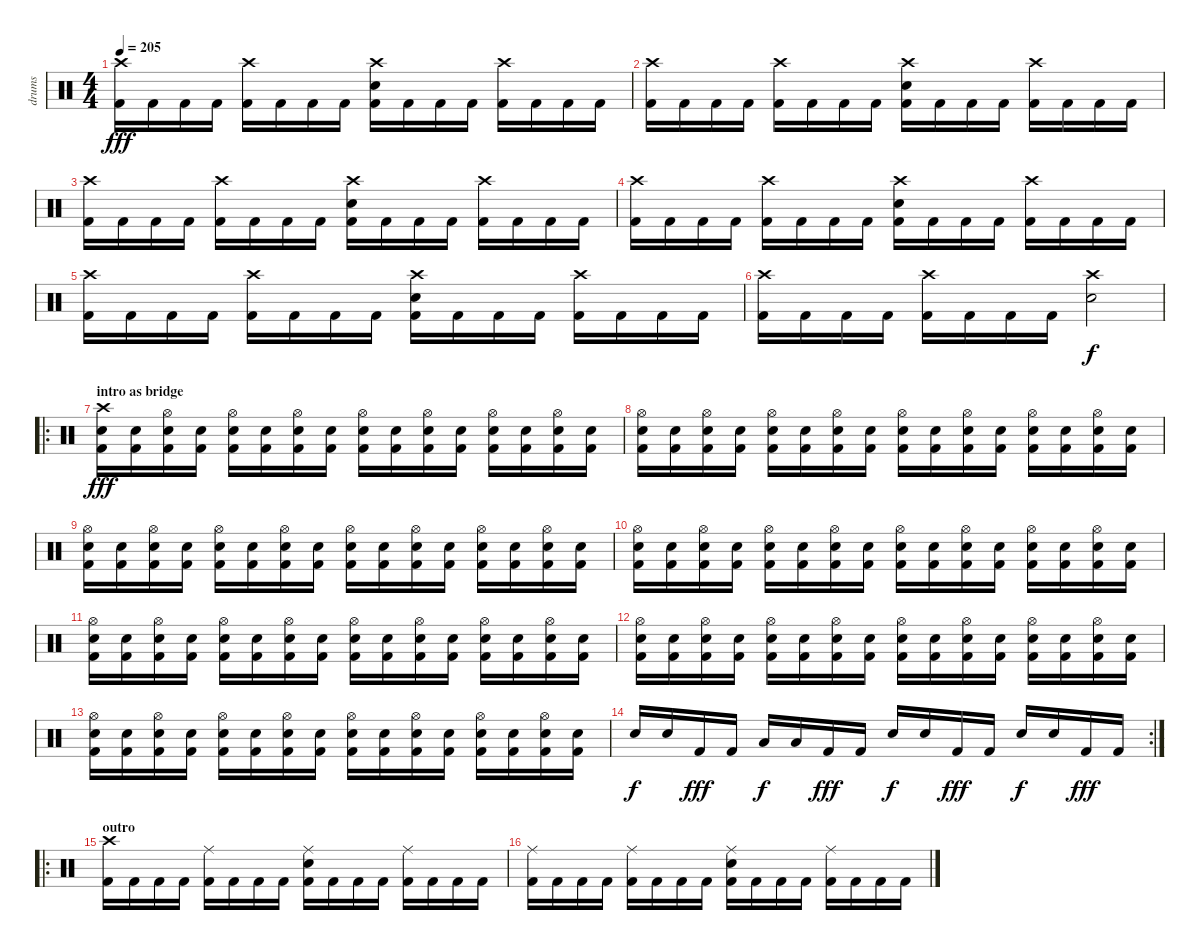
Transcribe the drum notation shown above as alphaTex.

\track ("drums" "drums") {instrument percussion}
\staff {score}
\articulation defaults
\ts (4 4)
\tempo 205
\clef neutral
\ks c
("Crash high (hit)" "Kick (hit) 2").16{dy fff} "Kick (hit) 2".16 "Kick (hit) 2".16 "Kick (hit) 2".16 ("Crash high (hit)" "Kick (hit) 2").16 "Kick (hit) 2".16 "Kick (hit) 2".16 "Kick (hit) 2".16 ("Crash high (hit)" "Electric Snare (hit)" "Kick (hit) 2").16 "Kick (hit) 2".16 "Kick (hit) 2".16 "Kick (hit) 2".16 ("Crash high (hit)" "Kick (hit) 2").16 "Kick (hit) 2".16 "Kick (hit) 2".16 "Kick (hit) 2".16 |
("Crash high (hit)" "Kick (hit) 2").16 "Kick (hit) 2".16 "Kick (hit) 2".16 "Kick (hit) 2".16 ("Crash high (hit)" "Kick (hit) 2").16 "Kick (hit) 2".16 "Kick (hit) 2".16 "Kick (hit) 2".16 ("Crash high (hit)" "Electric Snare (hit)" "Kick (hit) 2").16 "Kick (hit) 2".16 "Kick (hit) 2".16 "Kick (hit) 2".16 ("Crash high (hit)" "Kick (hit) 2").16 "Kick (hit) 2".16 "Kick (hit) 2".16 "Kick (hit) 2".16 |
("Crash high (hit)" "Kick (hit) 2").16 "Kick (hit) 2".16 "Kick (hit) 2".16 "Kick (hit) 2".16 ("Crash high (hit)" "Kick (hit) 2").16 "Kick (hit) 2".16 "Kick (hit) 2".16 "Kick (hit) 2".16 ("Crash high (hit)" "Electric Snare (hit)" "Kick (hit) 2").16 "Kick (hit) 2".16 "Kick (hit) 2".16 "Kick (hit) 2".16 ("Crash high (hit)" "Kick (hit) 2").16 "Kick (hit) 2".16 "Kick (hit) 2".16 "Kick (hit) 2".16 |
("Crash high (hit)" "Kick (hit) 2").16 "Kick (hit) 2".16 "Kick (hit) 2".16 "Kick (hit) 2".16 ("Crash high (hit)" "Kick (hit) 2").16 "Kick (hit) 2".16 "Kick (hit) 2".16 "Kick (hit) 2".16 ("Crash high (hit)" "Electric Snare (hit)" "Kick (hit) 2").16 "Kick (hit) 2".16 "Kick (hit) 2".16 "Kick (hit) 2".16 ("Crash high (hit)" "Kick (hit) 2").16 "Kick (hit) 2".16 "Kick (hit) 2".16 "Kick (hit) 2".16 |
("Crash high (hit)" "Kick (hit) 2").16 "Kick (hit) 2".16 "Kick (hit) 2".16 "Kick (hit) 2".16 ("Crash high (hit)" "Kick (hit) 2").16 "Kick (hit) 2".16 "Kick (hit) 2".16 "Kick (hit) 2".16 ("Crash high (hit)" "Electric Snare (hit)" "Kick (hit) 2").16 "Kick (hit) 2".16 "Kick (hit) 2".16 "Kick (hit) 2".16 ("Crash high (hit)" "Kick (hit) 2").16 "Kick (hit) 2".16 "Kick (hit) 2".16 "Kick (hit) 2".16 |
("Crash high (hit)" "Kick (hit) 2").16 "Kick (hit) 2".16 "Kick (hit) 2".16 "Kick (hit) 2".16 ("Crash high (hit)" "Kick (hit) 2").16 "Kick (hit) 2".16 "Kick (hit) 2".16 "Kick (hit) 2".16 ("Crash high (hit)" "Electric Snare (hit)").2{dy f} |
\ro
\section ("" "intro as bridge")
("Crash high (hit)" "Electric Snare (hit)" "Kick (hit) 2").16{dy fff} ("Electric Snare (hit)" "Kick (hit) 2").16 ("Hi-Hat (open)" "Electric Snare (hit)" "Kick (hit) 2").16 ("Electric Snare (hit)" "Kick (hit) 2").16 ("Hi-Hat (open)" "Electric Snare (hit)" "Kick (hit) 2").16 ("Electric Snare (hit)" "Kick (hit) 2").16 ("Hi-Hat (open)" "Electric Snare (hit)" "Kick (hit) 2").16 ("Electric Snare (hit)" "Kick (hit) 2").16 ("Hi-Hat (open)" "Electric Snare (hit)" "Kick (hit) 2").16 ("Electric Snare (hit)" "Kick (hit) 2").16 ("Hi-Hat (open)" "Electric Snare (hit)" "Kick (hit) 2").16 ("Electric Snare (hit)" "Kick (hit) 2").16 ("Hi-Hat (open)" "Electric Snare (hit)" "Kick (hit) 2").16 ("Electric Snare (hit)" "Kick (hit) 2").16 ("Hi-Hat (open)" "Electric Snare (hit)" "Kick (hit) 2").16 ("Electric Snare (hit)" "Kick (hit) 2").16 |
("Hi-Hat (open)" "Electric Snare (hit)" "Kick (hit) 2").16 ("Electric Snare (hit)" "Kick (hit) 2").16 ("Hi-Hat (open)" "Electric Snare (hit)" "Kick (hit) 2").16 ("Electric Snare (hit)" "Kick (hit) 2").16 ("Hi-Hat (open)" "Electric Snare (hit)" "Kick (hit) 2").16 ("Electric Snare (hit)" "Kick (hit) 2").16 ("Hi-Hat (open)" "Electric Snare (hit)" "Kick (hit) 2").16 ("Electric Snare (hit)" "Kick (hit) 2").16 ("Hi-Hat (open)" "Electric Snare (hit)" "Kick (hit) 2").16 ("Electric Snare (hit)" "Kick (hit) 2").16 ("Hi-Hat (open)" "Electric Snare (hit)" "Kick (hit) 2").16 ("Electric Snare (hit)" "Kick (hit) 2").16 ("Hi-Hat (open)" "Electric Snare (hit)" "Kick (hit) 2").16 ("Electric Snare (hit)" "Kick (hit) 2").16 ("Hi-Hat (open)" "Electric Snare (hit)" "Kick (hit) 2").16 ("Electric Snare (hit)" "Kick (hit) 2").16 |
("Hi-Hat (open)" "Electric Snare (hit)" "Kick (hit) 2").16 ("Electric Snare (hit)" "Kick (hit) 2").16 ("Hi-Hat (open)" "Electric Snare (hit)" "Kick (hit) 2").16 ("Electric Snare (hit)" "Kick (hit) 2").16 ("Hi-Hat (open)" "Electric Snare (hit)" "Kick (hit) 2").16 ("Electric Snare (hit)" "Kick (hit) 2").16 ("Hi-Hat (open)" "Electric Snare (hit)" "Kick (hit) 2").16 ("Electric Snare (hit)" "Kick (hit) 2").16 ("Hi-Hat (open)" "Electric Snare (hit)" "Kick (hit) 2").16 ("Electric Snare (hit)" "Kick (hit) 2").16 ("Hi-Hat (open)" "Electric Snare (hit)" "Kick (hit) 2").16 ("Electric Snare (hit)" "Kick (hit) 2").16 ("Hi-Hat (open)" "Electric Snare (hit)" "Kick (hit) 2").16 ("Electric Snare (hit)" "Kick (hit) 2").16 ("Hi-Hat (open)" "Electric Snare (hit)" "Kick (hit) 2").16 ("Electric Snare (hit)" "Kick (hit) 2").16 |
("Hi-Hat (open)" "Electric Snare (hit)" "Kick (hit) 2").16 ("Electric Snare (hit)" "Kick (hit) 2").16 ("Hi-Hat (open)" "Electric Snare (hit)" "Kick (hit) 2").16 ("Electric Snare (hit)" "Kick (hit) 2").16 ("Hi-Hat (open)" "Electric Snare (hit)" "Kick (hit) 2").16 ("Electric Snare (hit)" "Kick (hit) 2").16 ("Hi-Hat (open)" "Electric Snare (hit)" "Kick (hit) 2").16 ("Electric Snare (hit)" "Kick (hit) 2").16 ("Hi-Hat (open)" "Electric Snare (hit)" "Kick (hit) 2").16 ("Electric Snare (hit)" "Kick (hit) 2").16 ("Hi-Hat (open)" "Electric Snare (hit)" "Kick (hit) 2").16 ("Electric Snare (hit)" "Kick (hit) 2").16 ("Hi-Hat (open)" "Electric Snare (hit)" "Kick (hit) 2").16 ("Electric Snare (hit)" "Kick (hit) 2").16 ("Hi-Hat (open)" "Electric Snare (hit)" "Kick (hit) 2").16 ("Electric Snare (hit)" "Kick (hit) 2").16 |
("Hi-Hat (open)" "Electric Snare (hit)" "Kick (hit) 2").16 ("Electric Snare (hit)" "Kick (hit) 2").16 ("Hi-Hat (open)" "Electric Snare (hit)" "Kick (hit) 2").16 ("Electric Snare (hit)" "Kick (hit) 2").16 ("Hi-Hat (open)" "Electric Snare (hit)" "Kick (hit) 2").16 ("Electric Snare (hit)" "Kick (hit) 2").16 ("Hi-Hat (open)" "Electric Snare (hit)" "Kick (hit) 2").16 ("Electric Snare (hit)" "Kick (hit) 2").16 ("Hi-Hat (open)" "Electric Snare (hit)" "Kick (hit) 2").16 ("Electric Snare (hit)" "Kick (hit) 2").16 ("Hi-Hat (open)" "Electric Snare (hit)" "Kick (hit) 2").16 ("Electric Snare (hit)" "Kick (hit) 2").16 ("Hi-Hat (open)" "Electric Snare (hit)" "Kick (hit) 2").16 ("Electric Snare (hit)" "Kick (hit) 2").16 ("Hi-Hat (open)" "Electric Snare (hit)" "Kick (hit) 2").16 ("Electric Snare (hit)" "Kick (hit) 2").16 |
("Hi-Hat (open)" "Electric Snare (hit)" "Kick (hit) 2").16 ("Electric Snare (hit)" "Kick (hit) 2").16 ("Hi-Hat (open)" "Electric Snare (hit)" "Kick (hit) 2").16 ("Electric Snare (hit)" "Kick (hit) 2").16 ("Hi-Hat (open)" "Electric Snare (hit)" "Kick (hit) 2").16 ("Electric Snare (hit)" "Kick (hit) 2").16 ("Hi-Hat (open)" "Electric Snare (hit)" "Kick (hit) 2").16 ("Electric Snare (hit)" "Kick (hit) 2").16 ("Hi-Hat (open)" "Electric Snare (hit)" "Kick (hit) 2").16 ("Electric Snare (hit)" "Kick (hit) 2").16 ("Hi-Hat (open)" "Electric Snare (hit)" "Kick (hit) 2").16 ("Electric Snare (hit)" "Kick (hit) 2").16 ("Hi-Hat (open)" "Electric Snare (hit)" "Kick (hit) 2").16 ("Electric Snare (hit)" "Kick (hit) 2").16 ("Hi-Hat (open)" "Electric Snare (hit)" "Kick (hit) 2").16 ("Electric Snare (hit)" "Kick (hit) 2").16 |
("Hi-Hat (open)" "Electric Snare (hit)" "Kick (hit) 2").16 ("Electric Snare (hit)" "Kick (hit) 2").16 ("Hi-Hat (open)" "Electric Snare (hit)" "Kick (hit) 2").16 ("Electric Snare (hit)" "Kick (hit) 2").16 ("Hi-Hat (open)" "Electric Snare (hit)" "Kick (hit) 2").16 ("Electric Snare (hit)" "Kick (hit) 2").16 ("Hi-Hat (open)" "Electric Snare (hit)" "Kick (hit) 2").16 ("Electric Snare (hit)" "Kick (hit) 2").16 ("Hi-Hat (open)" "Electric Snare (hit)" "Kick (hit) 2").16 ("Electric Snare (hit)" "Kick (hit) 2").16 ("Hi-Hat (open)" "Electric Snare (hit)" "Kick (hit) 2").16 ("Electric Snare (hit)" "Kick (hit) 2").16 ("Hi-Hat (open)" "Electric Snare (hit)" "Kick (hit) 2").16 ("Electric Snare (hit)" "Kick (hit) 2").16 ("Hi-Hat (open)" "Electric Snare (hit)" "Kick (hit) 2").16 ("Electric Snare (hit)" "Kick (hit) 2").16 |
\rc 2 "Electric Snare (hit)".16{dy f} "Electric Snare (hit)".16 "Kick (hit) 2".16{dy fff} "Kick (hit) 2".16 "Low Tom (hit)".16{dy f} "Low Tom (hit)".16 "Kick (hit) 2".16{dy fff} "Kick (hit) 2".16 "Electric Snare (hit)".16{dy f} "Electric Snare (hit)".16 "Kick (hit) 2".16{dy fff} "Kick (hit) 2".16 "Electric Snare (hit)".16{dy f} "Electric Snare (hit)".16 "Kick (hit) 2".16{dy fff} "Kick (hit) 2".16
|
\ro
\section ("" "outro")
("Crash high (hit)" "Kick (hit) 2").16 "Kick (hit) 2".16 "Kick (hit) 2".16 "Kick (hit) 2".16 ("Ride (middle)" "Kick (hit) 2").16 "Kick (hit) 2".16 "Kick (hit) 2".16 "Kick (hit) 2".16 ("Ride (middle)" "Electric Snare (hit)" "Kick (hit) 2").16 "Kick (hit) 2".16 "Kick (hit) 2".16 "Kick (hit) 2".16 ("Ride (middle)" "Kick (hit) 2").16 "Kick (hit) 2".16 "Kick (hit) 2".16 "Kick (hit) 2".16 |
("Ride (middle)" "Kick (hit) 2").16 "Kick (hit) 2".16 "Kick (hit) 2".16 "Kick (hit) 2".16 ("Ride (middle)" "Kick (hit) 2").16 "Kick (hit) 2".16 "Kick (hit) 2".16 "Kick (hit) 2".16 ("Ride (middle)" "Electric Snare (hit)" "Kick (hit) 2").16 "Kick (hit) 2".16 "Kick (hit) 2".16 "Kick (hit) 2".16 ("Ride (middle)" "Kick (hit) 2").16 "Kick (hit) 2".16 "Kick (hit) 2".16 "Kick (hit) 2".16
